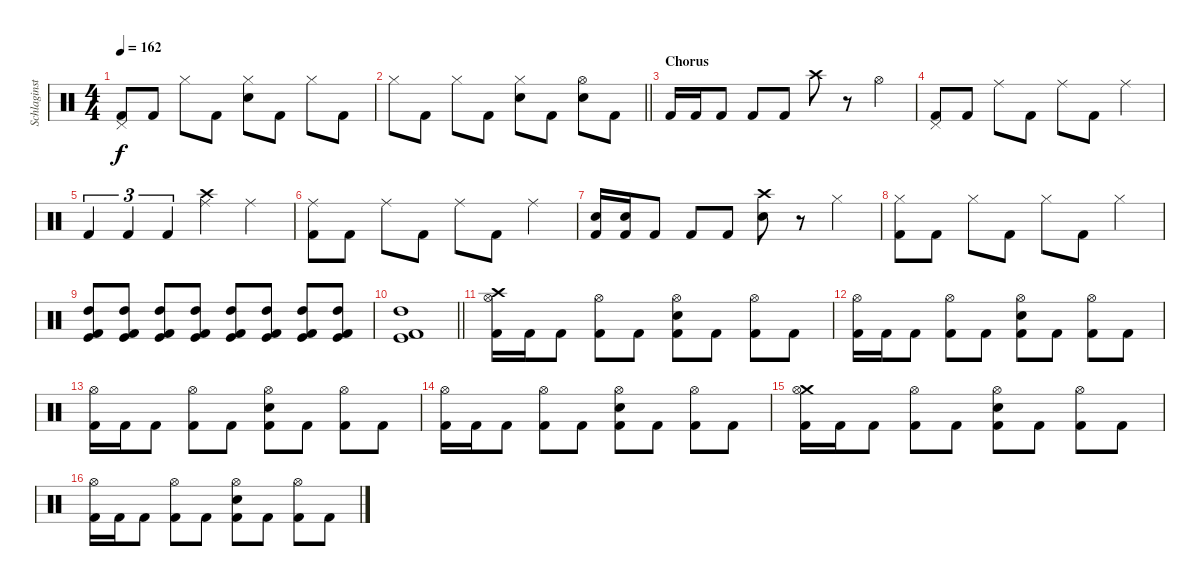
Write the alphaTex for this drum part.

\track ("Schlaginstrumente - Auswahl" "Schlaginst") {instrument percussion}
\staff {score}
\articulation defaults
\ts (4 4)
\tempo 162
\clef neutral
\ks c
("Pedal Hi-Hat (hit)" "Kick (hit) 2").8{dy f} "Kick (hit) 2".8 "Hi-Hat (closed)".8 "Kick (hit) 2".8 ("Hi-Hat (closed)" "Electric Snare (hit)").8 "Kick (hit) 2".8 "Hi-Hat (closed)".8 "Kick (hit) 2".8 |
\barLineRight lightlight "Hi-Hat (closed)".8 "Kick (hit) 2".8 "Hi-Hat (closed)".8 "Kick (hit) 2".8
("Hi-Hat (closed)" "Electric Snare (hit)").8 "Kick (hit) 2".8 ("Hi-Hat (open)" "Electric Snare (hit)").8 "Kick (hit) 2".8 |
\section ("" "Chorus")
"Kick (hit) 2".16 "Kick (hit) 2".16 "Kick (hit) 2".8 "Kick (hit) 2".8 "Kick (hit) 2".8 "Crash high (hit)".8 r.8 "Hi-Hat (open)".4 |
("Pedal Hi-Hat (hit)" "Kick (hit) 2").8 "Kick (hit) 2".8 "Ride (middle)".8 "Kick (hit) 2".8 "Ride (middle)".8 "Kick (hit) 2".8 "Ride (middle)".4 |
"Kick (hit) 2".4{tu (3 2)} "Kick (hit) 2".4{tu (3 2)} "Kick (hit) 2".4{tu (3 2)} ("Crash high (hit)" "Ride (middle)").4 "Ride (middle)".4 |
("Ride (middle)" "Kick (hit) 2").8 "Kick (hit) 2".8 "Ride (middle)".8 "Kick (hit) 2".8 "Ride (middle)".8 "Kick (hit) 2".8 "Ride (middle)".4 |
("Electric Snare (hit)" "Kick (hit) 2").16 ("Electric Snare (hit)" "Kick (hit) 2").16 "Kick (hit) 2".8 "Kick (hit) 2".8 "Kick (hit) 2".8 ("Crash high (hit)" "Electric Snare (hit)").8 r.8 "Hi-Hat (closed)".4 |
("Hi-Hat (closed)" "Kick (hit) 2").8 "Kick (hit) 2".8 "Hi-Hat (closed)".8 "Kick (hit) 2".8 "Hi-Hat (closed)".8 "Kick (hit) 2".8 "Hi-Hat (closed)".4 |
("Kick (hit)" "High Tom (hit)" "Kick (hit) 2").8 ("Kick (hit)" "High Tom (hit)" "Kick (hit) 2").8 ("Kick (hit)" "High Tom (hit)" "Kick (hit) 2").8 ("Kick (hit)" "High Tom (hit)" "Kick (hit) 2").8 ("Kick (hit)" "High Tom (hit)" "Kick (hit) 2").8 ("Kick (hit)" "High Tom (hit)" "Kick (hit) 2").8 ("Kick (hit)" "High Tom (hit)" "Kick (hit) 2").8 ("Kick (hit)" "High Tom (hit)" "Kick (hit) 2").8 |
\barLineRight lightlight
("Kick (hit)" "High Tom (hit)" "Kick (hit) 2").1 |
("Crash high (hit)" "Hi-Hat (open)" "Kick (hit) 2").16 "Kick (hit) 2".16 "Kick (hit) 2".8 ("Hi-Hat (open)" "Kick (hit) 2").8 "Kick (hit) 2".8 ("Hi-Hat (open)" "Electric Snare (hit)" "Kick (hit) 2").8 "Kick (hit) 2".8 ("Hi-Hat (open)" "Kick (hit) 2").8 "Kick (hit) 2".8 |
("Hi-Hat (open)" "Kick (hit) 2").16 "Kick (hit) 2".16 "Kick (hit) 2".8 ("Hi-Hat (open)" "Kick (hit) 2").8 "Kick (hit) 2".8 ("Hi-Hat (open)" "Electric Snare (hit)" "Kick (hit) 2").8 "Kick (hit) 2".8 ("Hi-Hat (open)" "Kick (hit) 2").8 "Kick (hit) 2".8 |
("Hi-Hat (open)" "Kick (hit) 2").16 "Kick (hit) 2".16 "Kick (hit) 2".8 ("Hi-Hat (open)" "Kick (hit) 2").8 "Kick (hit) 2".8 ("Hi-Hat (open)" "Electric Snare (hit)" "Kick (hit) 2").8 "Kick (hit) 2".8 ("Hi-Hat (open)" "Kick (hit) 2").8 "Kick (hit) 2".8 |
("Hi-Hat (open)" "Kick (hit) 2").16 "Kick (hit) 2".16 "Kick (hit) 2".8 ("Hi-Hat (open)" "Kick (hit) 2").8 "Kick (hit) 2".8 ("Hi-Hat (open)" "Electric Snare (hit)" "Kick (hit) 2").8 "Kick (hit) 2".8 ("Hi-Hat (open)" "Kick (hit) 2").8 "Kick (hit) 2".8 |
("Crash medium (hit)" "Hi-Hat (open)" "Kick (hit) 2").16 "Kick (hit) 2".16 "Kick (hit) 2".8 ("Hi-Hat (open)" "Kick (hit) 2").8 "Kick (hit) 2".8 ("Hi-Hat (open)" "Electric Snare (hit)" "Kick (hit) 2").8 "Kick (hit) 2".8 ("Hi-Hat (open)" "Kick (hit) 2").8 "Kick (hit) 2".8 |
("Hi-Hat (open)" "Kick (hit) 2").16 "Kick (hit) 2".16 "Kick (hit) 2".8 ("Hi-Hat (open)" "Kick (hit) 2").8 "Kick (hit) 2".8 ("Hi-Hat (open)" "Electric Snare (hit)" "Kick (hit) 2").8 "Kick (hit) 2".8 ("Hi-Hat (open)" "Kick (hit) 2").8 "Kick (hit) 2".8
